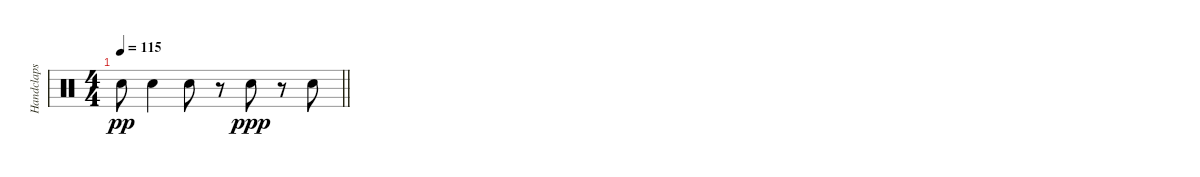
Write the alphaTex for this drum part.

\track ("Handclaps" "Handclaps") {instrument percussion}
\staff {score}
\articulation defaults
\ts (4 4)
\tempo 115
\clef neutral
\barLineRight lightlight
\ks c "Hand Clap (hit)".8{dy pp} "Hand Clap (hit)".4 "Hand Clap (hit)".8
r.8 "Hand Clap (hit)".8{dy ppp} r.8 "Hand Clap (hit)".8
